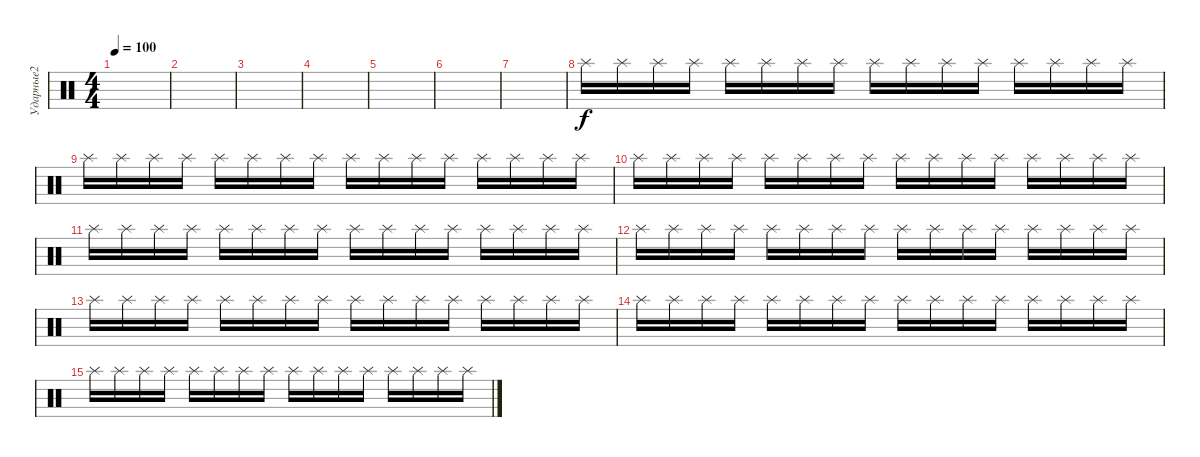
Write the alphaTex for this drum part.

\track ("Ударные2" "Ударные2") {instrument percussion}
\staff {score}
\articulation defaults
\ts (4 4)
\tempo 100
\clef neutral
\ks c
|
|
|
|
|
|
|
"Splash (hit)".16 "Splash (hit)".16 "Splash (hit)".16 "Splash (hit)".16 "Splash (hit)".16 "Splash (hit)".16 "Splash (hit)".16 "Splash (hit)".16 "Splash (hit)".16 "Splash (hit)".16 "Splash (hit)".16 "Splash (hit)".16 "Splash (hit)".16 "Splash (hit)".16 "Splash (hit)".16 "Splash (hit)".16 |
"Splash (hit)".16 "Splash (hit)".16 "Splash (hit)".16 "Splash (hit)".16 "Splash (hit)".16 "Splash (hit)".16 "Splash (hit)".16 "Splash (hit)".16 "Splash (hit)".16 "Splash (hit)".16 "Splash (hit)".16 "Splash (hit)".16 "Splash (hit)".16 "Splash (hit)".16 "Splash (hit)".16 "Splash (hit)".16 |
"Splash (hit)".16 "Splash (hit)".16 "Splash (hit)".16 "Splash (hit)".16 "Splash (hit)".16 "Splash (hit)".16 "Splash (hit)".16 "Splash (hit)".16 "Splash (hit)".16 "Splash (hit)".16 "Splash (hit)".16 "Splash (hit)".16 "Splash (hit)".16 "Splash (hit)".16 "Splash (hit)".16 "Splash (hit)".16 |
"Splash (hit)".16 "Splash (hit)".16 "Splash (hit)".16 "Splash (hit)".16 "Splash (hit)".16 "Splash (hit)".16 "Splash (hit)".16 "Splash (hit)".16 "Splash (hit)".16 "Splash (hit)".16 "Splash (hit)".16 "Splash (hit)".16 "Splash (hit)".16 "Splash (hit)".16 "Splash (hit)".16 "Splash (hit)".16 |
"Splash (hit)".16 "Splash (hit)".16 "Splash (hit)".16 "Splash (hit)".16 "Splash (hit)".16 "Splash (hit)".16 "Splash (hit)".16 "Splash (hit)".16 "Splash (hit)".16 "Splash (hit)".16 "Splash (hit)".16 "Splash (hit)".16 "Splash (hit)".16 "Splash (hit)".16 "Splash (hit)".16 "Splash (hit)".16 |
"Splash (hit)".16 "Splash (hit)".16 "Splash (hit)".16 "Splash (hit)".16 "Splash (hit)".16 "Splash (hit)".16 "Splash (hit)".16 "Splash (hit)".16 "Splash (hit)".16 "Splash (hit)".16 "Splash (hit)".16 "Splash (hit)".16 "Splash (hit)".16 "Splash (hit)".16 "Splash (hit)".16 "Splash (hit)".16 |
"Splash (hit)".16 "Splash (hit)".16 "Splash (hit)".16 "Splash (hit)".16 "Splash (hit)".16 "Splash (hit)".16 "Splash (hit)".16 "Splash (hit)".16 "Splash (hit)".16 "Splash (hit)".16 "Splash (hit)".16 "Splash (hit)".16 "Splash (hit)".16 "Splash (hit)".16 "Splash (hit)".16 "Splash (hit)".16 |
"Splash (hit)".16 "Splash (hit)".16 "Splash (hit)".16 "Splash (hit)".16 "Splash (hit)".16 "Splash (hit)".16 "Splash (hit)".16 "Splash (hit)".16 "Splash (hit)".16 "Splash (hit)".16 "Splash (hit)".16 "Splash (hit)".16 "Splash (hit)".16 "Splash (hit)".16 "Splash (hit)".16 "Splash (hit)".16
